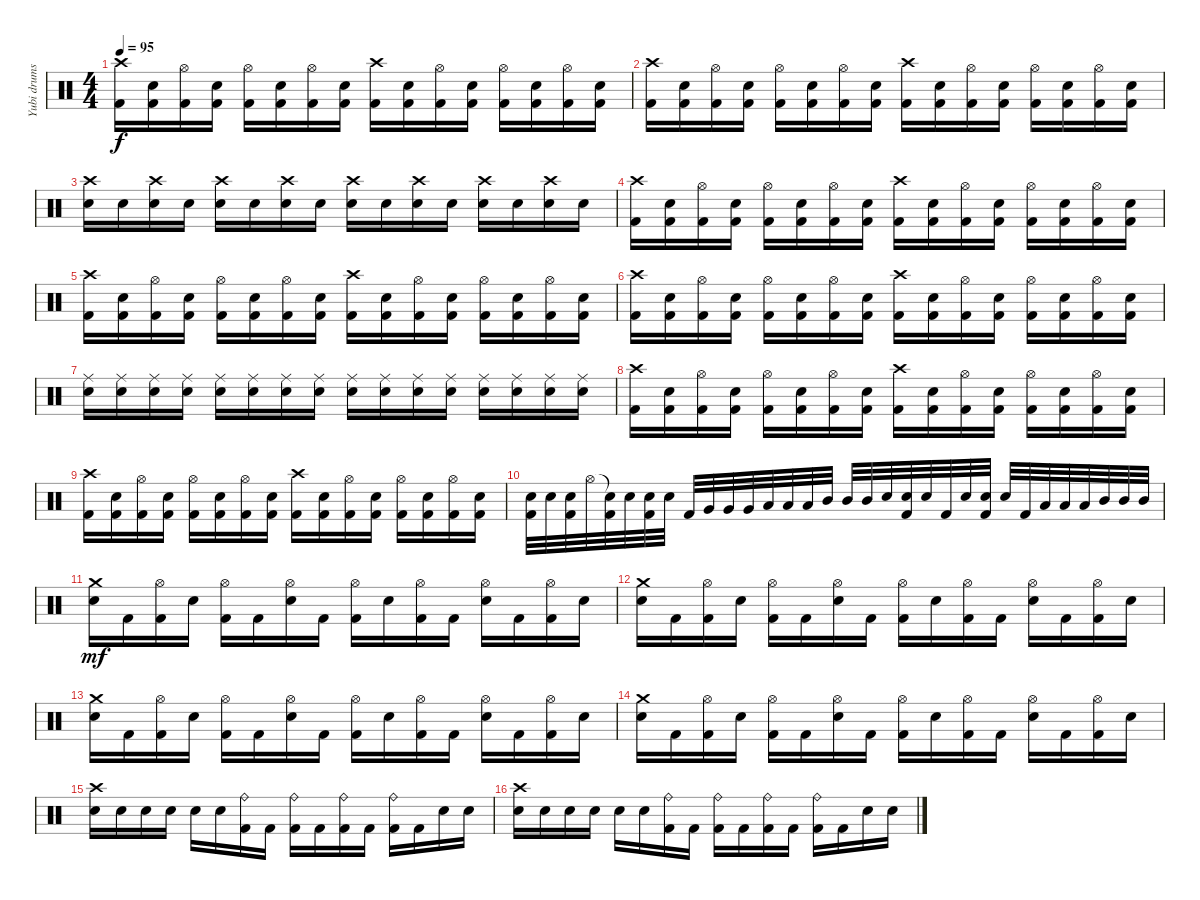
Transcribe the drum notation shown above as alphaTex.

\track ("Yubi drums" "Yubi drums") {instrument percussion}
\staff {score}
\articulation defaults
\ts (4 4)
\tempo 95
\clef neutral
\ks c
("Kick (hit) 2" "Crash high (hit)").16{dy f} ("Kick (hit) 2" "Snare (hit) 2").16 ("Kick (hit) 2" "Hi-Hat (open)").16 ("Kick (hit) 2" "Snare (hit) 2").16 ("Kick (hit) 2" "Hi-Hat (open)").16 ("Kick (hit) 2" "Snare (hit) 2").16 ("Kick (hit) 2" "Hi-Hat (open)").16 ("Kick (hit) 2" "Snare (hit) 2").16 ("Kick (hit) 2" "Crash high (hit)").16 ("Kick (hit) 2" "Snare (hit) 2").16 ("Kick (hit) 2" "Hi-Hat (open)").16 ("Kick (hit) 2" "Snare (hit) 2").16 ("Kick (hit) 2" "Hi-Hat (open)").16 ("Kick (hit) 2" "Snare (hit) 2").16 ("Kick (hit) 2" "Hi-Hat (open)").16 ("Kick (hit) 2" "Snare (hit) 2").16 |
("Kick (hit) 2" "Crash high (hit)").16 ("Kick (hit) 2" "Snare (hit) 2").16 ("Kick (hit) 2" "Hi-Hat (open)").16 ("Kick (hit) 2" "Snare (hit) 2").16 ("Kick (hit) 2" "Hi-Hat (open)").16 ("Kick (hit) 2" "Snare (hit) 2").16 ("Kick (hit) 2" "Hi-Hat (open)").16 ("Kick (hit) 2" "Snare (hit) 2").16 ("Kick (hit) 2" "Crash high (hit)").16 ("Kick (hit) 2" "Snare (hit) 2").16 ("Kick (hit) 2" "Hi-Hat (open)").16 ("Kick (hit) 2" "Snare (hit) 2").16 ("Kick (hit) 2" "Hi-Hat (open)").16 ("Kick (hit) 2" "Snare (hit) 2").16 ("Kick (hit) 2" "Hi-Hat (open)").16 ("Kick (hit) 2" "Snare (hit) 2").16 |
("Snare (hit) 2" "Crash high (hit)").16 "Snare (hit) 2".16 ("Snare (hit) 2" "Crash high (hit)").16 "Snare (hit) 2".16 ("Snare (hit) 2" "Crash high (hit)").16 "Snare (hit) 2".16 ("Snare (hit) 2" "Crash high (hit)").16 "Snare (hit) 2".16 ("Snare (hit) 2" "Crash high (hit)").16 "Snare (hit) 2".16 ("Snare (hit) 2" "Crash high (hit)").16 "Snare (hit) 2".16 ("Snare (hit) 2" "Crash high (hit)").16 "Snare (hit) 2".16 ("Snare (hit) 2" "Crash high (hit)").16 "Snare (hit) 2".16 |
("Kick (hit) 2" "Crash high (hit)").16 ("Kick (hit) 2" "Snare (hit) 2").16 ("Kick (hit) 2" "Hi-Hat (open)").16 ("Kick (hit) 2" "Snare (hit) 2").16 ("Kick (hit) 2" "Hi-Hat (open)").16 ("Kick (hit) 2" "Snare (hit) 2").16 ("Kick (hit) 2" "Hi-Hat (open)").16 ("Kick (hit) 2" "Snare (hit) 2").16 ("Kick (hit) 2" "Crash high (hit)").16 ("Kick (hit) 2" "Snare (hit) 2").16 ("Kick (hit) 2" "Hi-Hat (open)").16 ("Kick (hit) 2" "Snare (hit) 2").16 ("Kick (hit) 2" "Hi-Hat (open)").16 ("Kick (hit) 2" "Snare (hit) 2").16 ("Kick (hit) 2" "Hi-Hat (open)").16 ("Kick (hit) 2" "Snare (hit) 2").16 |
("Kick (hit) 2" "Crash high (hit)").16 ("Kick (hit) 2" "Snare (hit) 2").16 ("Kick (hit) 2" "Hi-Hat (open)").16 ("Kick (hit) 2" "Snare (hit) 2").16 ("Kick (hit) 2" "Hi-Hat (open)").16 ("Kick (hit) 2" "Snare (hit) 2").16 ("Kick (hit) 2" "Hi-Hat (open)").16 ("Kick (hit) 2" "Snare (hit) 2").16 ("Kick (hit) 2" "Crash high (hit)").16 ("Kick (hit) 2" "Snare (hit) 2").16 ("Kick (hit) 2" "Hi-Hat (open)").16 ("Kick (hit) 2" "Snare (hit) 2").16 ("Kick (hit) 2" "Hi-Hat (open)").16 ("Kick (hit) 2" "Snare (hit) 2").16 ("Kick (hit) 2" "Hi-Hat (open)").16 ("Kick (hit) 2" "Snare (hit) 2").16 |
("Kick (hit) 2" "Crash high (hit)").16 ("Kick (hit) 2" "Snare (hit) 2").16 ("Kick (hit) 2" "Hi-Hat (open)").16 ("Kick (hit) 2" "Snare (hit) 2").16 ("Kick (hit) 2" "Hi-Hat (open)").16 ("Kick (hit) 2" "Snare (hit) 2").16 ("Kick (hit) 2" "Hi-Hat (open)").16 ("Kick (hit) 2" "Snare (hit) 2").16 ("Kick (hit) 2" "Crash high (hit)").16 ("Kick (hit) 2" "Snare (hit) 2").16 ("Kick (hit) 2" "Hi-Hat (open)").16 ("Kick (hit) 2" "Snare (hit) 2").16 ("Kick (hit) 2" "Hi-Hat (open)").16 ("Kick (hit) 2" "Snare (hit) 2").16 ("Kick (hit) 2" "Hi-Hat (open)").16 ("Kick (hit) 2" "Snare (hit) 2").16 |
("Snare (hit) 2" "Ride (middle)").16 ("Snare (hit) 2" "Ride (middle)").16 ("Snare (hit) 2" "Ride (middle)").16 ("Snare (hit) 2" "Ride (middle)").16 ("Snare (hit) 2" "Ride (middle)").16 ("Snare (hit) 2" "Ride (middle)").16 ("Snare (hit) 2" "Ride (middle)").16 ("Snare (hit) 2" "Ride (middle)").16 ("Snare (hit) 2" "Ride (middle)").16 ("Snare (hit) 2" "Ride (middle)").16 ("Snare (hit) 2" "Ride (middle)").16 ("Snare (hit) 2" "Ride (middle)").16 ("Snare (hit) 2" "Ride (middle)").16 ("Snare (hit) 2" "Ride (middle)").16 ("Snare (hit) 2" "Ride (middle)").16 ("Snare (hit) 2" "Ride (middle)").16 |
("Kick (hit) 2" "Crash high (hit)").16 ("Kick (hit) 2" "Snare (hit) 2").16 ("Kick (hit) 2" "Hi-Hat (open)").16 ("Kick (hit) 2" "Snare (hit) 2").16 ("Kick (hit) 2" "Hi-Hat (open)").16 ("Kick (hit) 2" "Snare (hit) 2").16 ("Kick (hit) 2" "Hi-Hat (open)").16 ("Kick (hit) 2" "Snare (hit) 2").16 ("Kick (hit) 2" "Crash high (hit)").16 ("Kick (hit) 2" "Snare (hit) 2").16 ("Kick (hit) 2" "Hi-Hat (open)").16 ("Kick (hit) 2" "Snare (hit) 2").16 ("Kick (hit) 2" "Hi-Hat (open)").16 ("Kick (hit) 2" "Snare (hit) 2").16 ("Kick (hit) 2" "Hi-Hat (open)").16 ("Kick (hit) 2" "Snare (hit) 2").16 |
("Kick (hit) 2" "Crash high (hit)").16 ("Kick (hit) 2" "Snare (hit) 2").16 ("Kick (hit) 2" "Hi-Hat (open)").16 ("Kick (hit) 2" "Snare (hit) 2").16 ("Kick (hit) 2" "Hi-Hat (open)").16 ("Kick (hit) 2" "Snare (hit) 2").16 ("Kick (hit) 2" "Hi-Hat (open)").16 ("Kick (hit) 2" "Snare (hit) 2").16 ("Kick (hit) 2" "Crash high (hit)").16 ("Kick (hit) 2" "Snare (hit) 2").16 ("Kick (hit) 2" "Hi-Hat (open)").16 ("Kick (hit) 2" "Snare (hit) 2").16 ("Kick (hit) 2" "Hi-Hat (open)").16 ("Kick (hit) 2" "Snare (hit) 2").16 ("Kick (hit) 2" "Hi-Hat (open)").16 ("Kick (hit) 2" "Snare (hit) 2").16 |
("Snare (hit) 2" "Kick (hit) 2").32 "Snare (hit) 2".32 ("Snare (hit) 2" "Kick (hit) 2").32 "Hi-Hat (open)".32 ("Snare (hit)"{t} "Kick (hit) 2").32 "Snare (hit) 2".32 ("Snare (hit) 2" "Kick (hit) 2").32 "Snare (hit) 2".32 "Kick (hit) 2".32 "Very Low Tom (hit)".32 "Very Low Tom (hit)".32 "Very Low Tom (hit)".32 "Low Tom (hit)".32 "Low Tom (hit)".32 "Low Tom (hit)".32 "Mid Tom (hit)".32 "Mid Tom (hit)".32 "Mid Tom (hit)".32 "Snare (hit) 2".32 ("Snare (hit) 2" "Kick (hit) 2").32 "Snare (hit) 2".32 "Kick (hit) 2".32 "Snare (hit) 2".32 ("Snare (hit) 2" "Kick (hit) 2").32 "Snare (hit) 2".32 "Kick (hit) 2".32 "Low Tom (hit)".32 "Low Tom (hit)".32 "Low Tom (hit)".32 "Mid Tom (hit)".32 "Mid Tom (hit)".32 "Mid Tom (hit)".32 |
("Crash medium (hit)" "Snare (hit) 2").16{dy mf} "Kick (hit) 2".16 ("Hi-Hat (open)" "Kick (hit) 2").16 "Snare (hit) 2".16 ("Hi-Hat (open)" "Kick (hit) 2").16 "Kick (hit) 2".16 ("Hi-Hat (open)" "Snare (hit) 2").16 "Kick (hit) 2".16 ("Hi-Hat (open)" "Kick (hit) 2").16 "Snare (hit) 2".16 ("Hi-Hat (open)" "Kick (hit) 2").16 "Kick (hit) 2".16 ("Hi-Hat (open)" "Snare (hit) 2").16 "Kick (hit) 2".16 ("Hi-Hat (open)" "Kick (hit) 2").16 "Snare (hit) 2".16 |
("Crash medium (hit)" "Snare (hit) 2").16 "Kick (hit) 2".16 ("Hi-Hat (open)" "Kick (hit) 2").16 "Snare (hit) 2".16 ("Hi-Hat (open)" "Kick (hit) 2").16 "Kick (hit) 2".16 ("Hi-Hat (open)" "Snare (hit) 2").16 "Kick (hit) 2".16 ("Hi-Hat (open)" "Kick (hit) 2").16 "Snare (hit) 2".16 ("Hi-Hat (open)" "Kick (hit) 2").16 "Kick (hit) 2".16 ("Hi-Hat (open)" "Snare (hit) 2").16 "Kick (hit) 2".16 ("Hi-Hat (open)" "Kick (hit) 2").16 "Snare (hit) 2".16 |
("Crash medium (hit)" "Snare (hit) 2").16 "Kick (hit) 2".16 ("Hi-Hat (open)" "Kick (hit) 2").16 "Snare (hit) 2".16 ("Hi-Hat (open)" "Kick (hit) 2").16 "Kick (hit) 2".16 ("Hi-Hat (open)" "Snare (hit) 2").16 "Kick (hit) 2".16 ("Hi-Hat (open)" "Kick (hit) 2").16 "Snare (hit) 2".16 ("Hi-Hat (open)" "Kick (hit) 2").16 "Kick (hit) 2".16 ("Hi-Hat (open)" "Snare (hit) 2").16 "Kick (hit) 2".16 ("Hi-Hat (open)" "Kick (hit) 2").16 "Snare (hit) 2".16 |
("Crash medium (hit)" "Snare (hit) 2").16 "Kick (hit) 2".16 ("Hi-Hat (open)" "Kick (hit) 2").16 "Snare (hit) 2".16 ("Hi-Hat (open)" "Kick (hit) 2").16 "Kick (hit) 2".16 ("Hi-Hat (open)" "Snare (hit) 2").16 "Kick (hit) 2".16 ("Hi-Hat (open)" "Kick (hit) 2").16 "Snare (hit) 2".16 ("Hi-Hat (open)" "Kick (hit) 2").16 "Kick (hit) 2".16 ("Hi-Hat (open)" "Snare (hit) 2").16 "Kick (hit) 2".16 ("Hi-Hat (open)" "Kick (hit) 2").16 "Snare (hit) 2".16 |
("Crash high (hit)" "Snare (hit) 2").16 "Snare (hit) 2".16 "Snare (hit) 2".16 "Snare (hit) 2".16 "Snare (hit) 2".16 "Snare (hit) 2".16 ("Ride (bell)" "Kick (hit) 2").16 "Kick (hit) 2".16 ("Ride (bell)" "Kick (hit) 2").16 "Kick (hit) 2".16 ("Ride (bell)" "Kick (hit) 2").16 "Kick (hit) 2".16 ("Ride (bell)" "Kick (hit) 2").16 "Kick (hit) 2".16 "Snare (hit) 2".16 "Snare (hit) 2".16 |
("Crash high (hit)" "Snare (hit) 2").16 "Snare (hit) 2".16 "Snare (hit) 2".16 "Snare (hit) 2".16 "Snare (hit) 2".16 "Snare (hit) 2".16 ("Ride (bell)" "Kick (hit) 2").16 "Kick (hit) 2".16 ("Ride (bell)" "Kick (hit) 2").16 "Kick (hit) 2".16 ("Ride (bell)" "Kick (hit) 2").16 "Kick (hit) 2".16 ("Ride (bell)" "Kick (hit) 2").16 "Kick (hit) 2".16 "Snare (hit) 2".16 "Snare (hit) 2".16
